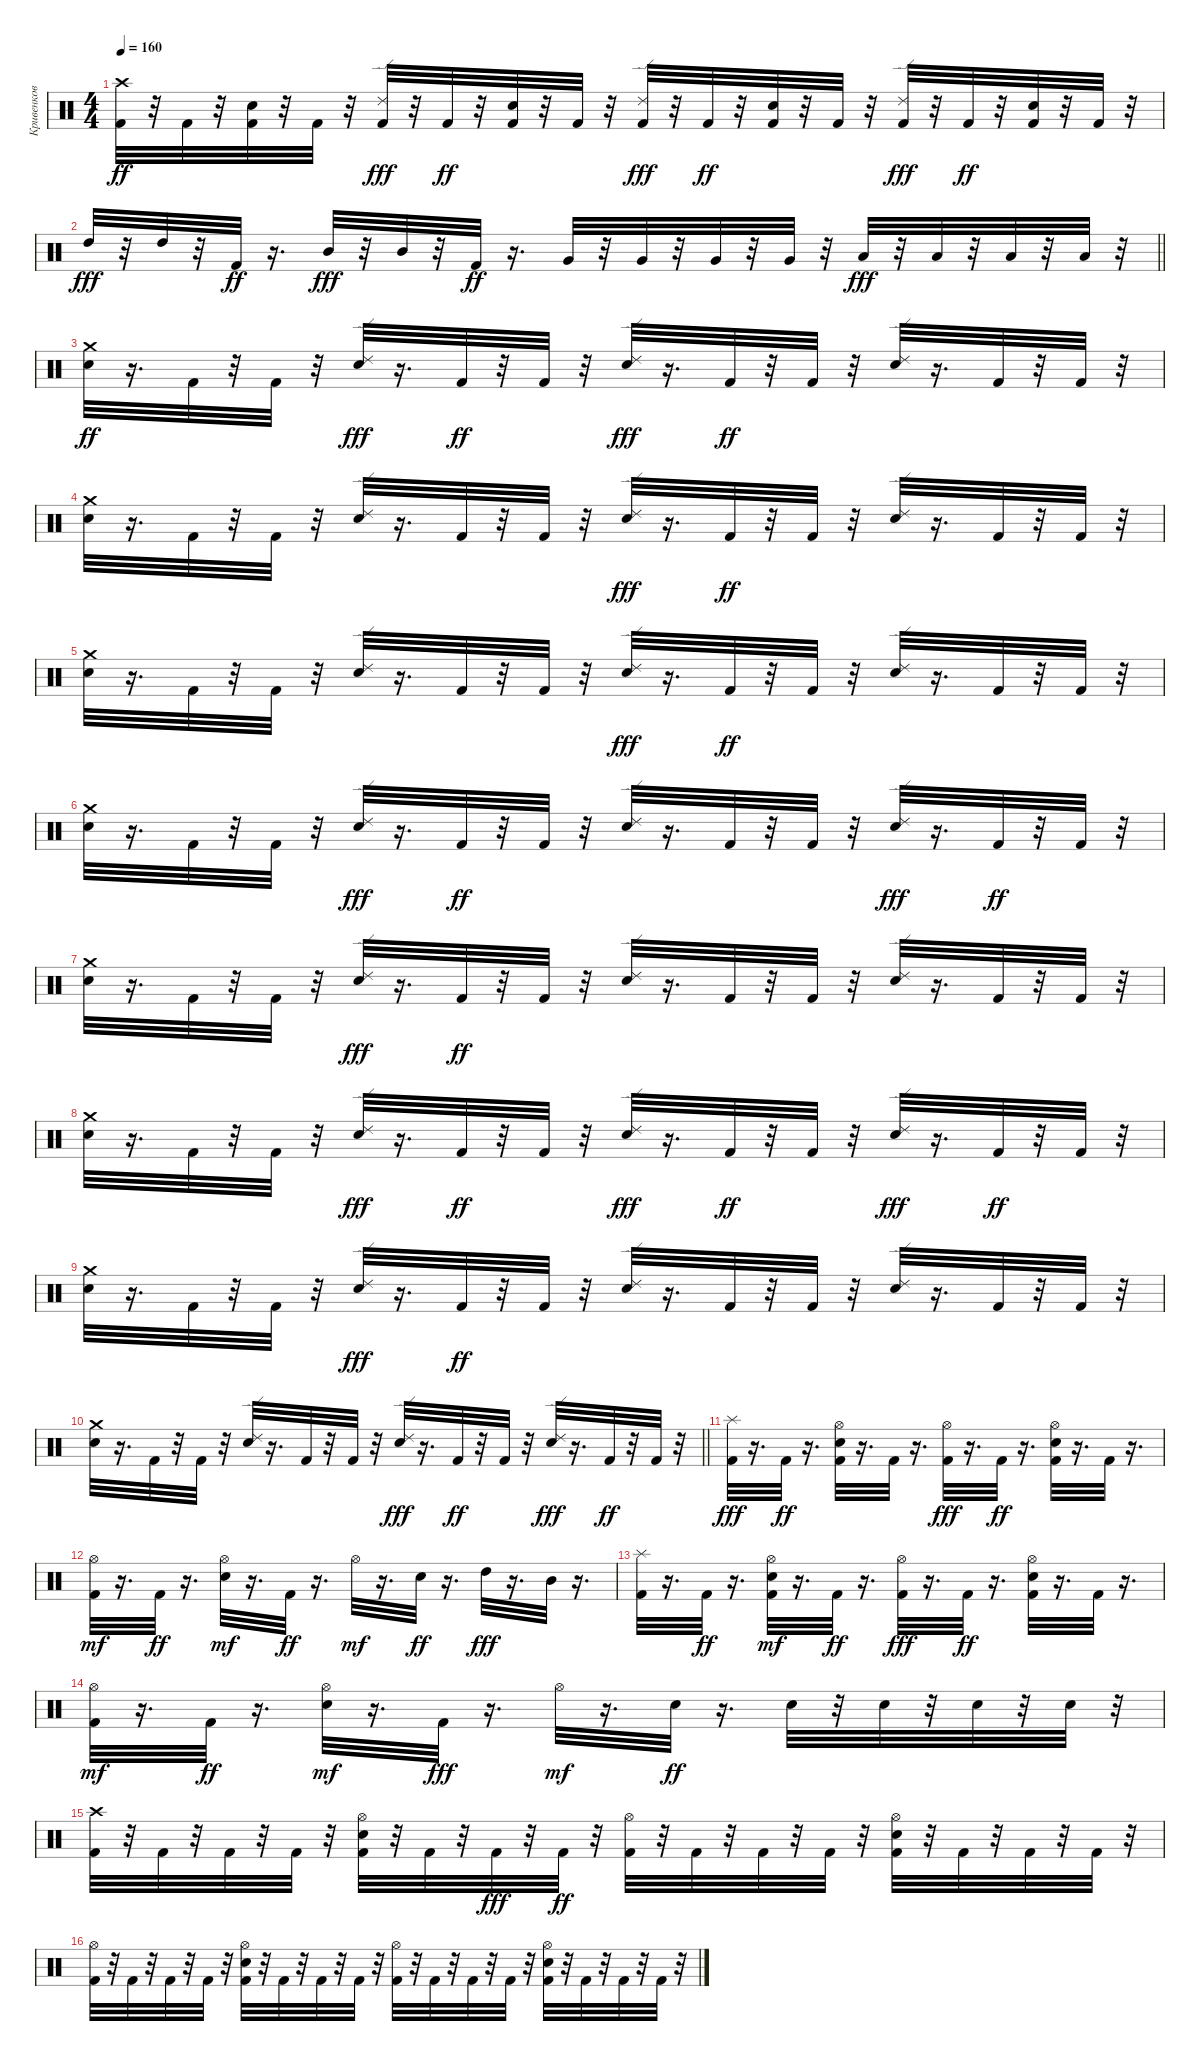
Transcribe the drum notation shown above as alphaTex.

\track ("Кривенков" "Кривенков") {instrument percussion}
\staff {score}
\articulation defaults
\ts (4 4)
\tempo 160
\clef neutral
\ks c
("Kick (hit) 2" "Crash high (hit)").32{dy ff} r.32 "Kick (hit) 2".32 r.32 ("Electric Snare (hit)" "Kick (hit) 2").32 r.32 "Kick (hit) 2".32 r.32 ("Kick (hit) 2" "Ride (edge) 2").32{dy fff} r.32 "Kick (hit) 2".32{dy ff} r.32 ("Electric Snare (hit)" "Kick (hit) 2").32 r.32 "Kick (hit) 2".32 r.32 ("Kick (hit) 2" "Ride (edge) 2").32{dy fff} r.32 "Kick (hit) 2".32{dy ff} r.32 ("Kick (hit) 2" "Electric Snare (hit)").32 r.32 "Kick (hit) 2".32 r.32 ("Kick (hit) 2" "Ride (edge) 2").32{dy fff} r.32 "Kick (hit) 2".32{dy ff} r.32 ("Electric Snare (hit)" "Kick (hit) 2").32 r.32 "Kick (hit) 2".32 r.32 |
\barLineRight lightlight "High Tom (hit)".32{dy fff}
r.32 "High Tom (hit)".32 r.32 "Kick (hit) 2".32{dy ff} r.16{d} "Mid Tom (hit)".32{dy fff} r.32 "Mid Tom (hit)".32 r.32 "Kick (hit) 2".32{dy ff} r.16{d} "Very Low Tom (hit)".32 r.32 "Very Low Tom (hit)".32 r.32 "Very Low Tom (hit)".32 r.32 "Very Low Tom (hit)".32 r.32 "Low Tom (hit)".32{dy fff} r.32 "Low Tom (hit)".32 r.32 "Low Tom (hit)".32 r.32 "Low Tom (hit)".32 r.32 |
\section ("" "")
("Crash medium (hit)" "Electric Snare (hit)").32{dy ff} r.16{d} "Kick (hit) 2".32 r.32 "Kick (hit) 2".32 r.32 ("Electric Snare (hit)" "Ride (edge) 2").32{dy fff} r.16{d} "Kick (hit) 2".32{dy ff} r.32 "Kick (hit) 2".32 r.32 ("Electric Snare (hit)" "Ride (edge) 2").32{dy fff} r.16{d} "Kick (hit) 2".32{dy ff} r.32 "Kick (hit) 2".32 r.32 ("Ride (edge) 2" "Electric Snare (hit)").32 r.16{d} "Kick (hit) 2".32 r.32 "Kick (hit) 2".32 r.32 |
("Electric Snare (hit)" "Crash medium (hit)").32 r.16{d} "Kick (hit) 2".32 r.32 "Kick (hit) 2".32 r.32 ("Ride (edge) 2" "Electric Snare (hit)").32 r.16{d} "Kick (hit) 2".32 r.32 "Kick (hit) 2".32 r.32 ("Electric Snare (hit)" "Ride (edge) 2").32{dy fff} r.16{d} "Kick (hit) 2".32{dy ff} r.32 "Kick (hit) 2".32 r.32 ("Ride (edge) 2" "Electric Snare (hit)").32 r.16{d} "Kick (hit) 2".32 r.32 "Kick (hit) 2".32 r.32 |
("Electric Snare (hit)" "Crash medium (hit)").32 r.16{d} "Kick (hit) 2".32 r.32 "Kick (hit) 2".32 r.32 ("Ride (edge) 2" "Electric Snare (hit)").32 r.16{d} "Kick (hit) 2".32 r.32 "Kick (hit) 2".32 r.32 ("Electric Snare (hit)" "Ride (edge) 2").32{dy fff} r.16{d} "Kick (hit) 2".32{dy ff} r.32 "Kick (hit) 2".32 r.32 ("Ride (edge) 2" "Electric Snare (hit)").32 r.16{d} "Kick (hit) 2".32 r.32 "Kick (hit) 2".32 r.32 |
("Crash medium (hit)" "Electric Snare (hit)").32 r.16{d} "Kick (hit) 2".32 r.32 "Kick (hit) 2".32 r.32 ("Electric Snare (hit)" "Ride (edge) 2").32{dy fff} r.16{d} "Kick (hit) 2".32{dy ff} r.32 "Kick (hit) 2".32 r.32 ("Ride (edge) 2" "Electric Snare (hit)").32 r.16{d} "Kick (hit) 2".32 r.32 "Kick (hit) 2".32 r.32 ("Electric Snare (hit)" "Ride (edge) 2").32{dy fff} r.16{d} "Kick (hit) 2".32{dy ff} r.32 "Kick (hit) 2".32 r.32 |
("Electric Snare (hit)" "Crash medium (hit)").32 r.16{d} "Kick (hit) 2".32 r.32 "Kick (hit) 2".32 r.32 ("Electric Snare (hit)" "Ride (edge) 2").32{dy fff} r.16{d} "Kick (hit) 2".32{dy ff} r.32 "Kick (hit) 2".32 r.32 ("Ride (edge) 2" "Electric Snare (hit)").32 r.16{d} "Kick (hit) 2".32 r.32 "Kick (hit) 2".32 r.32 ("Ride (edge) 2" "Electric Snare (hit)").32 r.16{d} "Kick (hit) 2".32 r.32 "Kick (hit) 2".32 r.32 |
("Crash medium (hit)" "Electric Snare (hit)").32 r.16{d} "Kick (hit) 2".32 r.32 "Kick (hit) 2".32 r.32 ("Electric Snare (hit)" "Ride (edge) 2").32{dy fff} r.16{d} "Kick (hit) 2".32{dy ff} r.32 "Kick (hit) 2".32 r.32 ("Electric Snare (hit)" "Ride (edge) 2").32{dy fff} r.16{d} "Kick (hit) 2".32{dy ff} r.32 "Kick (hit) 2".32 r.32 ("Electric Snare (hit)" "Ride (edge) 2").32{dy fff} r.16{d} "Kick (hit) 2".32{dy ff} r.32 "Kick (hit) 2".32 r.32 |
("Electric Snare (hit)" "Crash medium (hit)").32 r.16{d} "Kick (hit) 2".32 r.32 "Kick (hit) 2".32 r.32 ("Electric Snare (hit)" "Ride (edge) 2").32{dy fff} r.16{d} "Kick (hit) 2".32{dy ff} r.32 "Kick (hit) 2".32 r.32 ("Ride (edge) 2" "Electric Snare (hit)").32 r.16{d} "Kick (hit) 2".32 r.32 "Kick (hit) 2".32 r.32 ("Ride (edge) 2" "Electric Snare (hit)").32 r.16{d} "Kick (hit) 2".32 r.32 "Kick (hit) 2".32 r.32 |
\barLineRight lightlight
("Crash medium (hit)" "Electric Snare (hit)").32 r.16{d} "Kick (hit) 2".32 r.32 "Kick (hit) 2".32 r.32 ("Ride (edge) 2" "Electric Snare (hit)").32 r.16{d} "Kick (hit) 2".32 r.32 "Kick (hit) 2".32 r.32 ("Electric Snare (hit)" "Ride (edge) 2").32{dy fff} r.16{d} "Kick (hit) 2".32{dy ff} r.32 "Kick (hit) 2".32 r.32 ("Electric Snare (hit)" "Ride (edge) 2").32{dy fff} r.16{d} "Kick (hit) 2".32{dy ff} r.32 "Kick (hit) 2".32 r.32 |
("Splash (hit)" "Kick (hit) 2").32{dy fff} r.16{d} "Kick (hit) 2".32{dy ff} r.16{d} ("Electric Snare (hit)" "Hi-Hat (open)" "Kick (hit) 2").32 r.16{d} "Kick (hit) 2".32 r.16{d} ("Hi-Hat (open)" "Kick (hit) 2").32{dy fff} r.16{d} "Kick (hit) 2".32{dy ff} r.16{d} ("Electric Snare (hit)" "Hi-Hat (open)" "Kick (hit) 2").32 r.16{d} "Kick (hit) 2".32 r.16{d} |
("Kick (hit) 2" "Hi-Hat (open)").32{dy mf} r.16{d} "Kick (hit) 2".32{dy ff} r.16{d} ("Electric Snare (hit)" "Hi-Hat (open)").32{dy mf} r.16{d} "Kick (hit) 2".32{dy ff} r.16{d} "Hi-Hat (open)".32{dy mf} r.16{d} "Electric Snare (hit)".32{dy ff} r.16{d} "High Tom (hit)".32{dy fff} r.16{d} "Mid Tom (hit)".32 r.16{d} |
("Splash (hit)" "Kick (hit) 2").32 r.16{d} "Kick (hit) 2".32{dy ff} r.16{d} ("Kick (hit) 2" "Electric Snare (hit)" "Hi-Hat (open)").32{dy mf} r.16{d} "Kick (hit) 2".32{dy ff} r.16{d} ("Hi-Hat (open)" "Kick (hit) 2").32{dy fff} r.16{d} "Kick (hit) 2".32{dy ff} r.16{d} ("Hi-Hat (open)" "Electric Snare (hit)" "Kick (hit) 2").32 r.16{d} "Kick (hit) 2".32 r.16{d} |
("Kick (hit) 2" "Hi-Hat (open)").32{dy mf} r.16{d} "Kick (hit) 2".32{dy ff} r.16{d} ("Electric Snare (hit)" "Hi-Hat (open)").32{dy mf} r.16{d} "Kick (hit) 2".32{dy fff} r.16{d} "Hi-Hat (open)".32{dy mf} r.16{d} "Electric Snare (hit)".32{dy ff} r.16{d} "Electric Snare (hit)".32 r.32 "Electric Snare (hit)".32 r.32 "Electric Snare (hit)".32 r.32 "Electric Snare (hit)".32 r.32 |
("Kick (hit) 2" "Crash high (hit)").32 r.32 "Kick (hit) 2".32 r.32 "Kick (hit) 2".32 r.32 "Kick (hit) 2".32 r.32 ("Kick (hit) 2" "Hi-Hat (open)" "Electric Snare (hit)").32 r.32 "Kick (hit) 2".32 r.32 "Kick (hit) 2".32{dy fff} r.32 "Kick (hit) 2".32{dy ff} r.32 ("Hi-Hat (open)" "Kick (hit) 2").32 r.32 "Kick (hit) 2".32 r.32 "Kick (hit) 2".32 r.32 "Kick (hit) 2".32 r.32 ("Hi-Hat (open)" "Kick (hit) 2" "Electric Snare (hit)").32 r.32 "Kick (hit) 2".32 r.32 "Kick (hit) 2".32 r.32 "Kick (hit) 2".32 r.32 |
("Hi-Hat (open)" "Kick (hit) 2").32 r.32 "Kick (hit) 2".32 r.32 "Kick (hit) 2".32 r.32 "Kick (hit) 2".32 r.32 ("Electric Snare (hit)" "Hi-Hat (open)" "Kick (hit) 2").32 r.32 "Kick (hit) 2".32 r.32 "Kick (hit) 2".32 r.32 "Kick (hit) 2".32 r.32 ("Hi-Hat (open)" "Kick (hit) 2").32 r.32 "Kick (hit) 2".32 r.32 "Kick (hit) 2".32 r.32 "Kick (hit) 2".32 r.32 ("Electric Snare (hit)" "Hi-Hat (open)" "Kick (hit) 2").32 r.32 "Kick (hit) 2".32 r.32 "Kick (hit) 2".32 r.32 "Kick (hit) 2".32 r.32
